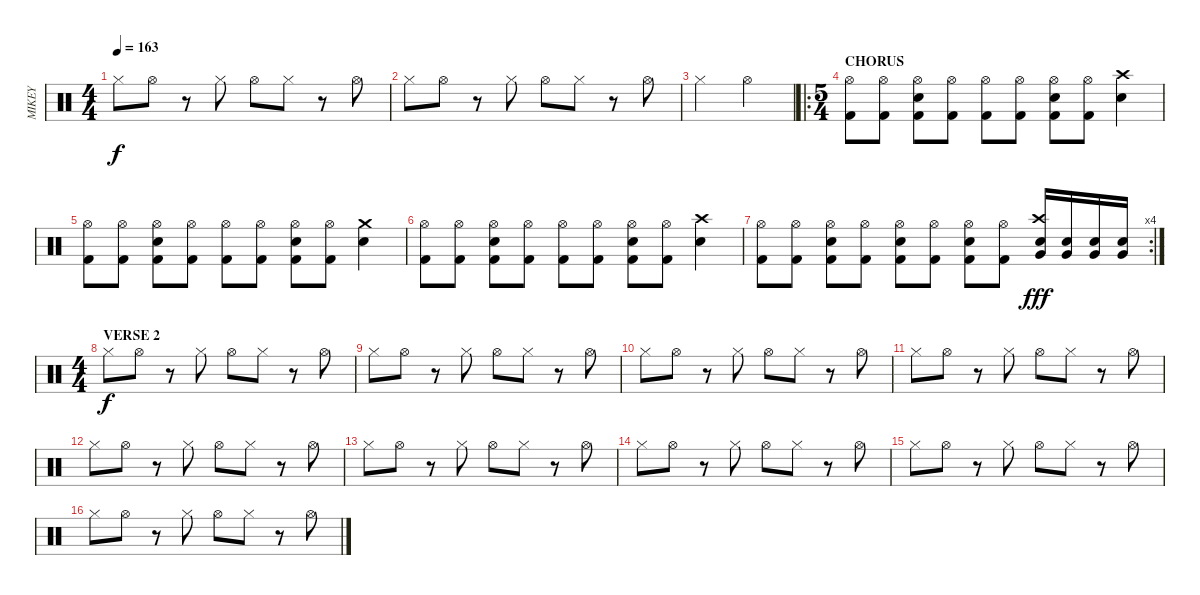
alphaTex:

\track ("MIKEY" "MIKEY") {instrument percussion}
\staff {score}
\articulation defaults
\ts (4 4)
\tempo 163
\clef neutral
\ks c "Hi-Hat (closed)".8{dy f} "Hi-Hat (open)".8
r.8 "Hi-Hat (closed)".8 "Hi-Hat (open)".8 "Hi-Hat (closed)".8 r.8 "Hi-Hat (open)".8 |
"Hi-Hat (closed)".8 "Hi-Hat (open)".8 r.8 "Hi-Hat (closed)".8 "Hi-Hat (open)".8 "Hi-Hat (closed)".8 r.8 "Hi-Hat (open)".8 |
"Hi-Hat (closed)".2 "Hi-Hat (open)".2 |
\ro
\ts (5 4)
\section ("" "CHORUS")
("Hi-Hat (open)" "Kick (hit) 2").8 ("Hi-Hat (open)" "Kick (hit) 2").8 ("Snare (hit) 2" "Hi-Hat (open)" "Kick (hit) 2").8 ("Hi-Hat (open)" "Kick (hit) 2").8 ("Hi-Hat (open)" "Kick (hit) 2").8 ("Hi-Hat (open)" "Kick (hit) 2").8 ("Snare (hit) 2" "Hi-Hat (open)" "Kick (hit) 2").8 ("Hi-Hat (open)" "Kick (hit) 2").8 ("Snare (hit) 2" "Crash high (hit)").4 |
("Hi-Hat (open)" "Kick (hit) 2").8 ("Hi-Hat (open)" "Kick (hit) 2").8 ("Snare (hit) 2" "Hi-Hat (open)" "Kick (hit) 2").8 ("Hi-Hat (open)" "Kick (hit) 2").8 ("Hi-Hat (open)" "Kick (hit) 2").8 ("Hi-Hat (open)" "Kick (hit) 2").8 ("Snare (hit) 2" "Hi-Hat (open)" "Kick (hit) 2").8 ("Hi-Hat (open)" "Kick (hit) 2").8 ("Snare (hit) 2" "Crash medium (hit)").4 |
("Hi-Hat (open)" "Kick (hit) 2").8 ("Hi-Hat (open)" "Kick (hit) 2").8 ("Snare (hit) 2" "Hi-Hat (open)" "Kick (hit) 2").8 ("Hi-Hat (open)" "Kick (hit) 2").8 ("Hi-Hat (open)" "Kick (hit) 2").8 ("Hi-Hat (open)" "Kick (hit) 2").8 ("Snare (hit) 2" "Hi-Hat (open)" "Kick (hit) 2").8 ("Hi-Hat (open)" "Kick (hit) 2").8 ("Snare (hit) 2" "Crash high (hit)").4 |
\rc 4
("Hi-Hat (open)" "Kick (hit) 2").8 ("Hi-Hat (open)" "Kick (hit) 2").8 ("Snare (hit) 2" "Hi-Hat (open)" "Kick (hit) 2").8 ("Hi-Hat (open)" "Kick (hit) 2").8 ("Snare (hit) 2" "Hi-Hat (open)" "Kick (hit) 2").8 ("Hi-Hat (open)" "Kick (hit) 2").8 ("Snare (hit) 2" "Hi-Hat (open)" "Kick (hit) 2").8 ("Hi-Hat (open)" "Kick (hit) 2").8 ("Very Low Tom (hit)" "Snare (hit) 2" "Crash high (hit)").16{dy fff} ("Very Low Tom (hit)" "Snare (hit) 2").16 ("Very Low Tom (hit)" "Snare (hit) 2").16 ("Very Low Tom (hit)" "Snare (hit) 2").16 |
\ts (4 4)
\section ("" "VERSE 2")
"Hi-Hat (closed)".8{dy f} "Hi-Hat (open)".8 r.8 "Hi-Hat (closed)".8 "Hi-Hat (open)".8 "Hi-Hat (closed)".8 r.8 "Hi-Hat (open)".8 |
"Hi-Hat (closed)".8 "Hi-Hat (open)".8 r.8 "Hi-Hat (closed)".8 "Hi-Hat (open)".8 "Hi-Hat (closed)".8 r.8 "Hi-Hat (open)".8 |
"Hi-Hat (closed)".8 "Hi-Hat (open)".8 r.8 "Hi-Hat (closed)".8 "Hi-Hat (open)".8 "Hi-Hat (closed)".8 r.8 "Hi-Hat (open)".8 |
"Hi-Hat (closed)".8 "Hi-Hat (open)".8 r.8 "Hi-Hat (closed)".8 "Hi-Hat (open)".8 "Hi-Hat (closed)".8 r.8 "Hi-Hat (open)".8 |
"Hi-Hat (closed)".8 "Hi-Hat (open)".8 r.8 "Hi-Hat (closed)".8 "Hi-Hat (open)".8 "Hi-Hat (closed)".8 r.8 "Hi-Hat (open)".8 |
"Hi-Hat (closed)".8 "Hi-Hat (open)".8 r.8 "Hi-Hat (closed)".8 "Hi-Hat (open)".8 "Hi-Hat (closed)".8 r.8 "Hi-Hat (open)".8 |
"Hi-Hat (closed)".8 "Hi-Hat (open)".8 r.8 "Hi-Hat (closed)".8 "Hi-Hat (open)".8 "Hi-Hat (closed)".8 r.8 "Hi-Hat (open)".8 |
"Hi-Hat (closed)".8 "Hi-Hat (open)".8 r.8 "Hi-Hat (closed)".8 "Hi-Hat (open)".8 "Hi-Hat (closed)".8 r.8 "Hi-Hat (open)".8 |
"Hi-Hat (closed)".8 "Hi-Hat (open)".8 r.8 "Hi-Hat (closed)".8 "Hi-Hat (open)".8 "Hi-Hat (closed)".8 r.8 "Hi-Hat (open)".8
